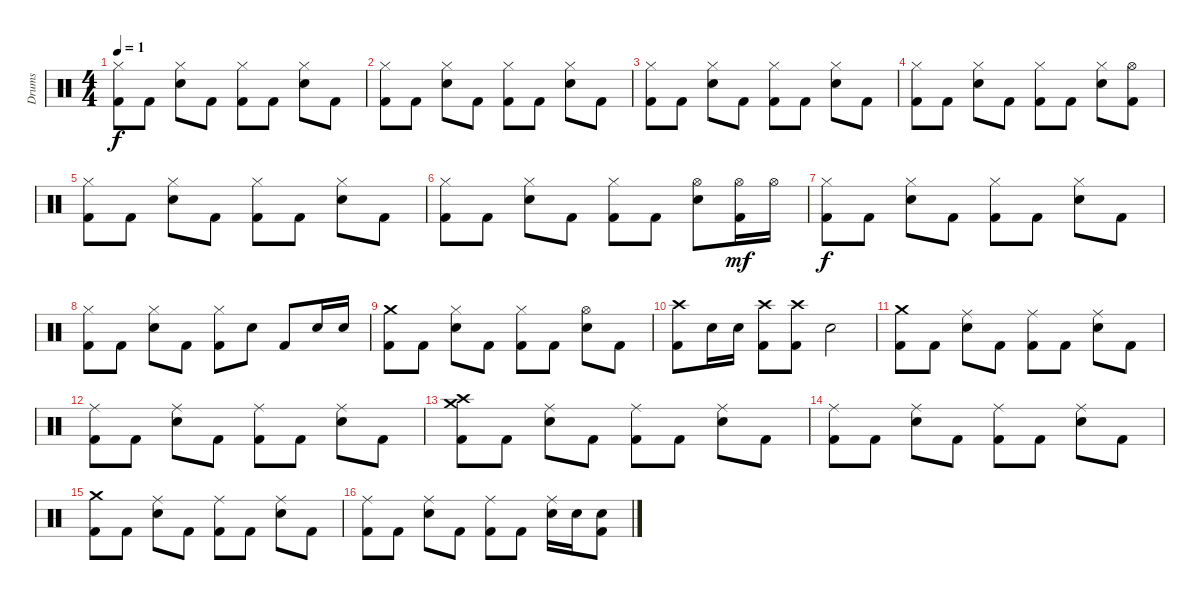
\track ("Drums" "Drums") {instrument percussion}
\staff {score}
\articulation defaults
\ts (4 4)
\tempo 1
\clef neutral
\ks c
("Kick (hit) 2" "Hi-Hat (closed)").8{dy f} "Kick (hit) 2".8 ("Snare (hit) 2" "Hi-Hat (closed)").8 "Kick (hit) 2".8 ("Kick (hit) 2" "Hi-Hat (closed)").8 "Kick (hit) 2".8 ("Snare (hit) 2" "Hi-Hat (closed)").8 "Kick (hit) 2".8 |
("Kick (hit) 2" "Hi-Hat (closed)").8 "Kick (hit) 2".8 ("Snare (hit) 2" "Hi-Hat (closed)").8 "Kick (hit) 2".8 ("Kick (hit) 2" "Hi-Hat (closed)").8 "Kick (hit) 2".8 ("Snare (hit) 2" "Hi-Hat (closed)").8 "Kick (hit) 2".8 |
("Kick (hit) 2" "Hi-Hat (closed)").8 "Kick (hit) 2".8 ("Snare (hit) 2" "Hi-Hat (closed)").8 "Kick (hit) 2".8 ("Kick (hit) 2" "Hi-Hat (closed)").8 "Kick (hit) 2".8 ("Snare (hit) 2" "Hi-Hat (closed)").8 "Kick (hit) 2".8 |
("Kick (hit) 2" "Hi-Hat (closed)").8 "Kick (hit) 2".8 ("Snare (hit) 2" "Hi-Hat (closed)").8 "Kick (hit) 2".8 ("Kick (hit) 2" "Hi-Hat (closed)").8 "Kick (hit) 2".8 ("Snare (hit) 2" "Hi-Hat (closed)").8 ("Hi-Hat (open)" "Kick (hit) 2").8 |
("Kick (hit) 2" "Hi-Hat (closed)").8 "Kick (hit) 2".8 ("Snare (hit) 2" "Hi-Hat (closed)").8 "Kick (hit) 2".8 ("Kick (hit) 2" "Hi-Hat (closed)").8 "Kick (hit) 2".8 ("Snare (hit) 2" "Hi-Hat (closed)").8 "Kick (hit) 2".8 |
("Kick (hit) 2" "Hi-Hat (closed)").8 "Kick (hit) 2".8 ("Snare (hit) 2" "Hi-Hat (closed)").8 "Kick (hit) 2".8 ("Kick (hit) 2" "Hi-Hat (closed)").8 "Kick (hit) 2".8 ("Hi-Hat (open)" "Snare (hit) 2").8 ("Hi-Hat (open)" "Kick (hit) 2").16{dy mf} "Hi-Hat (open)".16 |
("Kick (hit) 2" "Hi-Hat (closed)").8{dy f} "Kick (hit) 2".8 ("Snare (hit) 2" "Hi-Hat (closed)").8 "Kick (hit) 2".8 ("Kick (hit) 2" "Hi-Hat (closed)").8 "Kick (hit) 2".8 ("Snare (hit) 2" "Hi-Hat (closed)").8 "Kick (hit) 2".8 |
("Kick (hit) 2" "Hi-Hat (closed)").8 "Kick (hit) 2".8 ("Snare (hit) 2" "Hi-Hat (closed)").8 "Kick (hit) 2".8 ("Kick (hit) 2" "Hi-Hat (closed)").8 "Snare (hit) 2".8 "Kick (hit) 2".8 "Snare (hit) 2".16 "Snare (hit) 2".16 |
("Crash medium (hit)" "Kick (hit) 2").8 "Kick (hit) 2".8 ("Snare (hit) 2" "Hi-Hat (closed)").8 "Kick (hit) 2".8 ("Kick (hit) 2" "Hi-Hat (closed)").8 "Kick (hit) 2".8 ("Hi-Hat (open)" "Snare (hit) 2").8 "Kick (hit) 2".8 |
("Crash high (hit)" "Kick (hit) 2").8 "Snare (hit) 2".16 "Snare (hit) 2".16 ("Crash high (hit)" "Kick (hit) 2").8 ("Crash high (hit)" "Kick (hit) 2").8 "Snare (hit) 2".2 |
("Crash medium (hit)" "Kick (hit) 2").8 "Kick (hit) 2".8 ("Ride (middle)" "Snare (hit) 2").8 "Kick (hit) 2".8 ("Ride (middle)" "Kick (hit) 2").8 "Kick (hit) 2".8 ("Ride (middle)" "Snare (hit) 2").8 "Kick (hit) 2".8 |
("Ride (middle)" "Kick (hit) 2").8 "Kick (hit) 2".8 ("Ride (middle)" "Snare (hit) 2").8 "Kick (hit) 2".8 ("Ride (middle)" "Kick (hit) 2").8 "Kick (hit) 2".8 ("Ride (middle)" "Snare (hit) 2").8 "Kick (hit) 2".8 |
("Crash high (hit)" "Crash medium (hit)" "Kick (hit) 2").8 "Kick (hit) 2".8 ("Ride (middle)" "Snare (hit) 2").8 "Kick (hit) 2".8 ("Ride (middle)" "Kick (hit) 2").8 "Kick (hit) 2".8 ("Ride (middle)" "Snare (hit) 2").8 "Kick (hit) 2".8 |
("Ride (middle)" "Kick (hit) 2").8 "Kick (hit) 2".8 ("Ride (middle)" "Snare (hit) 2").8 "Kick (hit) 2".8 ("Ride (middle)" "Kick (hit) 2").8 "Kick (hit) 2".8 ("Ride (middle)" "Snare (hit) 2").8 "Kick (hit) 2".8 |
("Crash medium (hit)" "Kick (hit) 2").8 "Kick (hit) 2".8 ("Ride (middle)" "Snare (hit) 2").8 "Kick (hit) 2".8 ("Ride (middle)" "Kick (hit) 2").8 "Kick (hit) 2".8 ("Ride (middle)" "Snare (hit) 2").8 "Kick (hit) 2".8 |
("Ride (middle)" "Kick (hit) 2").8 "Kick (hit) 2".8 ("Ride (middle)" "Snare (hit) 2").8 "Kick (hit) 2".8 ("Ride (middle)" "Kick (hit) 2").8 "Kick (hit) 2".8 ("Ride (middle)" "Snare (hit) 2").16 "Snare (hit) 2".16 ("Snare (hit) 2" "Kick (hit) 2").8
